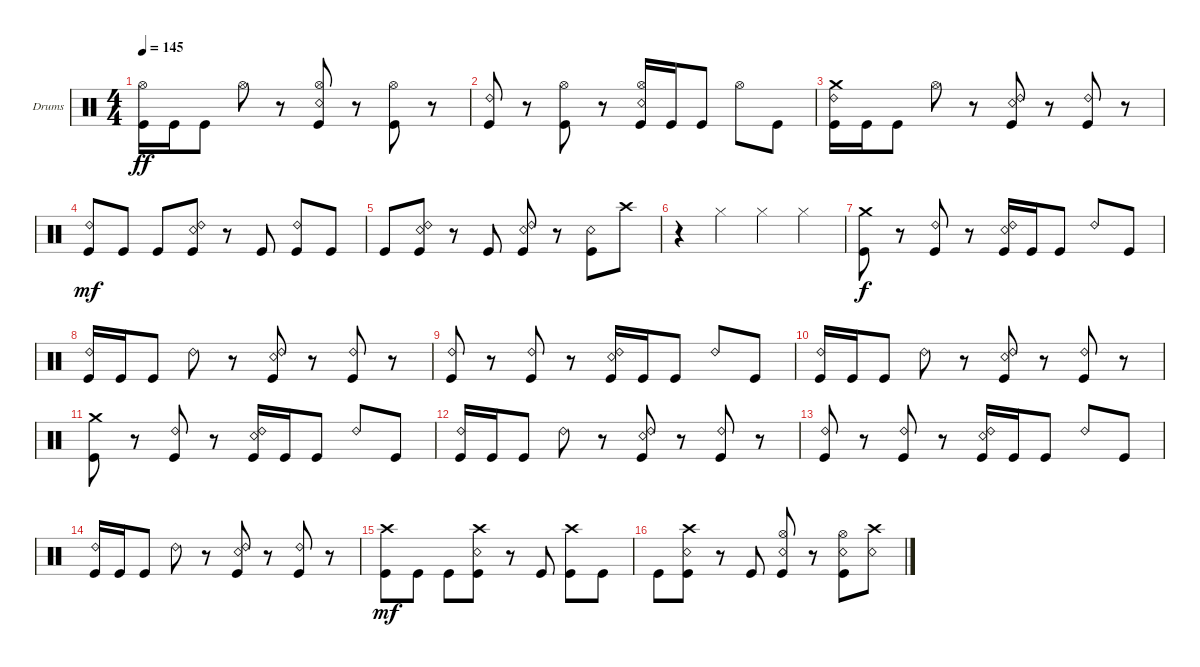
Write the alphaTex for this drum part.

\bracketExtendMode groupsimilarinstruments
\firstSystemTrackNameOrientation horizontal
\otherSystemsTrackNameOrientation horizontal
\track ("Kaleb - Drums" "Drums") {instrument percussion}
\staff {score}
\articulation defaults
\ts (4 4)
\tempo 145
\clef neutral
\ks c
("Kick (hit)" "Hi-Hat (open)").16{dy ff} "Kick (hit)".16 "Kick (hit)".8 "Hi-Hat (open)".8 r.8 ("Kick (hit)" "Snare (rim shot)" "Hi-Hat (open)").8 r.8 ("Kick (hit)" "Hi-Hat (open)").8 r.8 |
("Kick (hit)" "Ride (bell) 2").8 r.8 ("Kick (hit)" "Hi-Hat (open)").8 r.8 ("Kick (hit)" "Snare (rim shot)" "Hi-Hat (open)").16 "Kick (hit)".16 "Kick (hit)".8 "Hi-Hat (open)".8 "Kick (hit)".8 |
("Kick (hit)" "Ride (bell) 2" "Crash medium (hit)").16 "Kick (hit)".16 "Kick (hit)".8 "Hi-Hat (open)".8 r.8 ("Kick (hit)" "Ride (bell) 2" "Snare (rim shot)").8 r.8 ("Kick (hit)" "Ride (bell) 2").8 r.8 |
("Ride (bell) 2" "Kick (hit)").8{dy mf} "Kick (hit)".8 "Kick (hit)".8 ("Ride (bell) 2" "Kick (hit)" "Snare (rim shot)").8 r.8 "Kick (hit)".8 ("Ride (bell) 2" "Kick (hit)").8 "Kick (hit)".8 |
"Kick (hit)".8 ("Ride (bell) 2" "Kick (hit)" "Snare (rim shot)").8 r.8 "Kick (hit)".8 ("Ride (bell) 2" "Kick (hit)" "Snare (rim shot)").8 r.8 ("Kick (hit)" "Snare (rim shot)").8 "Crash high (hit)".8 |
r.4 "Hi-Hat (closed)".4 "Hi-Hat (closed)".4 "Hi-Hat (closed)".4 |
("Kick (hit)" "Crash medium (hit)").8{dy f} r.8 ("Kick (hit)" "Ride (bell) 2").8 r.8 ("Kick (hit)" "Ride (bell) 2" "Snare (rim shot)").16 "Kick (hit)".16 "Kick (hit)".8 "Ride (bell) 2".8 "Kick (hit)".8 |
("Kick (hit)" "Ride (bell) 2").16 "Kick (hit)".16 "Kick (hit)".8 "Ride (bell) 2".8 r.8 ("Kick (hit)" "Ride (bell) 2" "Snare (rim shot)").8 r.8 ("Kick (hit)" "Ride (bell) 2").8 r.8 |
("Kick (hit)" "Ride (bell) 2").8 r.8 ("Kick (hit)" "Ride (bell) 2").8 r.8 ("Kick (hit)" "Ride (bell) 2" "Snare (rim shot)").16 "Kick (hit)".16 "Kick (hit)".8 "Ride (bell) 2".8 "Kick (hit)".8 |
("Kick (hit)" "Ride (bell) 2").16 "Kick (hit)".16 "Kick (hit)".8 "Ride (bell) 2".8 r.8 ("Kick (hit)" "Ride (bell) 2" "Snare (rim shot)").8 r.8 ("Kick (hit)" "Ride (bell) 2").8 r.8 |
("Kick (hit)" "Crash medium (hit)").8 r.8 ("Kick (hit)" "Ride (bell) 2").8 r.8 ("Kick (hit)" "Ride (bell) 2" "Snare (rim shot)").16 "Kick (hit)".16 "Kick (hit)".8 "Ride (bell) 2".8 "Kick (hit)".8 |
("Kick (hit)" "Ride (bell) 2").16 "Kick (hit)".16 "Kick (hit)".8 "Ride (bell) 2".8 r.8 ("Kick (hit)" "Ride (bell) 2" "Snare (rim shot)").8 r.8 ("Kick (hit)" "Ride (bell) 2").8 r.8 |
("Kick (hit)" "Ride (bell) 2").8 r.8 ("Kick (hit)" "Ride (bell) 2").8 r.8 ("Kick (hit)" "Ride (bell) 2" "Snare (rim shot)").16 "Kick (hit)".16 "Kick (hit)".8 "Ride (bell) 2".8 "Kick (hit)".8 |
("Kick (hit)" "Ride (bell) 2").16 "Kick (hit)".16 "Kick (hit)".8 "Ride (bell) 2".8 r.8 ("Kick (hit)" "Ride (bell) 2" "Snare (rim shot)").8 r.8 ("Kick (hit)" "Ride (bell) 2").8 r.8 |
("Kick (hit)" "Crash high (hit)").8{dy mf} "Kick (hit)".8 "Kick (hit)".8 ("Kick (hit)" "Snare (rim shot)" "Crash high (hit)").8 r.8 "Kick (hit)".8 ("Kick (hit)" "Crash high (hit)").8 "Kick (hit)".8 |
"Kick (hit)".8 ("Kick (hit)" "Snare (rim shot)" "Crash high (hit)").8 r.8 "Kick (hit)".8 ("Kick (hit)" "Snare (rim shot)" "Hi-Hat (open)").8 r.8 ("Kick (hit)" "Snare (rim shot)" "Hi-Hat (open)").8 ("Crash high (hit)" "Snare (rim shot)").8
